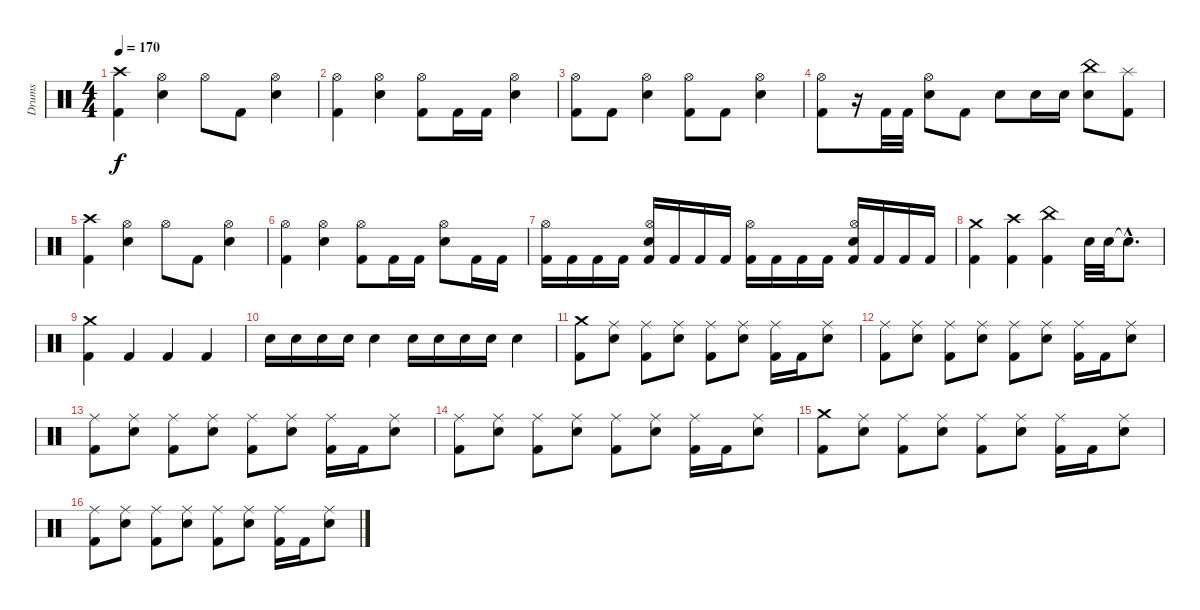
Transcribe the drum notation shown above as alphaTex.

\track ("Drums" "Drums") {instrument percussion}
\staff {score}
\articulation defaults
\ts (4 4)
\tempo 170
\clef neutral
\ks c
("Crash high (hit)" "Kick (hit) 2").4{dy f} ("Hi-Hat (open)" "Electric Snare (hit)").4 "Hi-Hat (open)".8 "Kick (hit) 2".8 ("Hi-Hat (open)" "Electric Snare (hit)").4 |
("Hi-Hat (open)" "Kick (hit) 2").4 ("Hi-Hat (open)" "Electric Snare (hit)").4 ("Hi-Hat (open)" "Kick (hit) 2").8 "Kick (hit) 2".16 "Kick (hit) 2".16 ("Hi-Hat (open)" "Electric Snare (hit)").4 |
("Hi-Hat (open)" "Kick (hit) 2").8 "Kick (hit) 2".8 ("Hi-Hat (open)" "Electric Snare (hit)").4 ("Hi-Hat (open)" "Kick (hit) 2").8 "Kick (hit) 2".8 ("Hi-Hat (open)" "Electric Snare (hit)").4 |
("Hi-Hat (open)" "Kick (hit) 2").8 r.16 "Kick (hit) 2".32 "Kick (hit) 2".32 ("Hi-Hat (open)" "Electric Snare (hit)").8 "Kick (hit) 2".8 "Electric Snare (hit)".8 "Electric Snare (hit)".16 "Electric Snare (hit)".16 ("China (hit)" "Electric Snare (hit)").8 ("Splash (hit)" "Kick (hit) 2").8 |
("Crash high (hit)" "Kick (hit) 2").4 ("Hi-Hat (open)" "Electric Snare (hit)").4 "Hi-Hat (open)".8 "Kick (hit) 2".8 ("Hi-Hat (open)" "Electric Snare (hit)").4 |
("Hi-Hat (open)" "Kick (hit) 2").4 ("Hi-Hat (open)" "Electric Snare (hit)").4 ("Hi-Hat (open)" "Kick (hit) 2").8 "Kick (hit) 2".16 "Kick (hit) 2".16 ("Hi-Hat (open)" "Electric Snare (hit)").8 "Kick (hit) 2".16 "Kick (hit) 2".16 |
("Hi-Hat (open)" "Kick (hit) 2").16 "Kick (hit) 2".16 "Kick (hit) 2".16 "Kick (hit) 2".16 ("Hi-Hat (open)" "Electric Snare (hit)" "Kick (hit) 2").16 "Kick (hit) 2".16 "Kick (hit) 2".16 "Kick (hit) 2".16 ("Hi-Hat (open)" "Kick (hit) 2").16 "Kick (hit) 2".16 "Kick (hit) 2".16 "Kick (hit) 2".16 ("Hi-Hat (open)" "Electric Snare (hit)" "Kick (hit) 2").16 "Kick (hit) 2".16 "Kick (hit) 2".16 "Kick (hit) 2".16 |
("Crash medium (hit)" "Kick (hit) 2").4 ("Crash high (hit)" "Kick (hit) 2").4 ("China (hit)" "Kick (hit) 2").4 "Electric Snare (hit)".32 "Electric Snare (hit)".32 "Snare (hit)"{hac t}.8{d} |
("Crash medium (hit)" "Kick (hit) 2").4 "Kick (hit) 2".4 "Kick (hit) 2".4 "Kick (hit) 2".4 |
"Electric Snare (hit)".16 "Electric Snare (hit)".16 "Electric Snare (hit)".16 "Electric Snare (hit)".16 "Electric Snare (hit)".4 "Electric Snare (hit)".16 "Electric Snare (hit)".16 "Electric Snare (hit)".16 "Electric Snare (hit)".16 "Electric Snare (hit)".4 |
("Crash medium (hit)" "Kick (hit) 2").8 ("Ride (middle)" "Electric Snare (hit)").8 ("Ride (middle)" "Kick (hit) 2").8 ("Ride (middle)" "Electric Snare (hit)").8 ("Ride (middle)" "Kick (hit) 2").8 ("Ride (middle)" "Electric Snare (hit)").8 ("Ride (middle)" "Kick (hit) 2").16 "Kick (hit) 2".16 ("Ride (middle)" "Electric Snare (hit)").8 |
("Ride (middle)" "Kick (hit) 2").8 ("Ride (middle)" "Electric Snare (hit)").8 ("Ride (middle)" "Kick (hit) 2").8 ("Ride (middle)" "Electric Snare (hit)").8 ("Ride (middle)" "Kick (hit) 2").8 ("Ride (middle)" "Electric Snare (hit)").8 ("Ride (middle)" "Kick (hit) 2").16 "Kick (hit) 2".16 ("Ride (middle)" "Electric Snare (hit)").8 |
("Ride (middle)" "Kick (hit) 2").8 ("Ride (middle)" "Electric Snare (hit)").8 ("Ride (middle)" "Kick (hit) 2").8 ("Ride (middle)" "Electric Snare (hit)").8 ("Ride (middle)" "Kick (hit) 2").8 ("Ride (middle)" "Electric Snare (hit)").8 ("Ride (middle)" "Kick (hit) 2").16 "Kick (hit) 2".16 ("Ride (middle)" "Electric Snare (hit)").8 |
("Ride (middle)" "Kick (hit) 2").8 ("Ride (middle)" "Electric Snare (hit)").8 ("Ride (middle)" "Kick (hit) 2").8 ("Ride (middle)" "Electric Snare (hit)").8 ("Ride (middle)" "Kick (hit) 2").8 ("Ride (middle)" "Electric Snare (hit)").8 ("Ride (middle)" "Kick (hit) 2").16 "Kick (hit) 2".16 ("Ride (middle)" "Electric Snare (hit)").8 |
("Crash medium (hit)" "Kick (hit) 2").8 ("Ride (middle)" "Electric Snare (hit)").8 ("Ride (middle)" "Kick (hit) 2").8 ("Ride (middle)" "Electric Snare (hit)").8 ("Ride (middle)" "Kick (hit) 2").8 ("Ride (middle)" "Electric Snare (hit)").8 ("Ride (middle)" "Kick (hit) 2").16 "Kick (hit) 2".16 ("Ride (middle)" "Electric Snare (hit)").8 |
("Ride (middle)" "Kick (hit) 2").8 ("Ride (middle)" "Electric Snare (hit)").8 ("Ride (middle)" "Kick (hit) 2").8 ("Ride (middle)" "Electric Snare (hit)").8 ("Ride (middle)" "Kick (hit) 2").8 ("Ride (middle)" "Electric Snare (hit)").8 ("Ride (middle)" "Kick (hit) 2").16 "Kick (hit) 2".16 ("Ride (middle)" "Electric Snare (hit)").8
